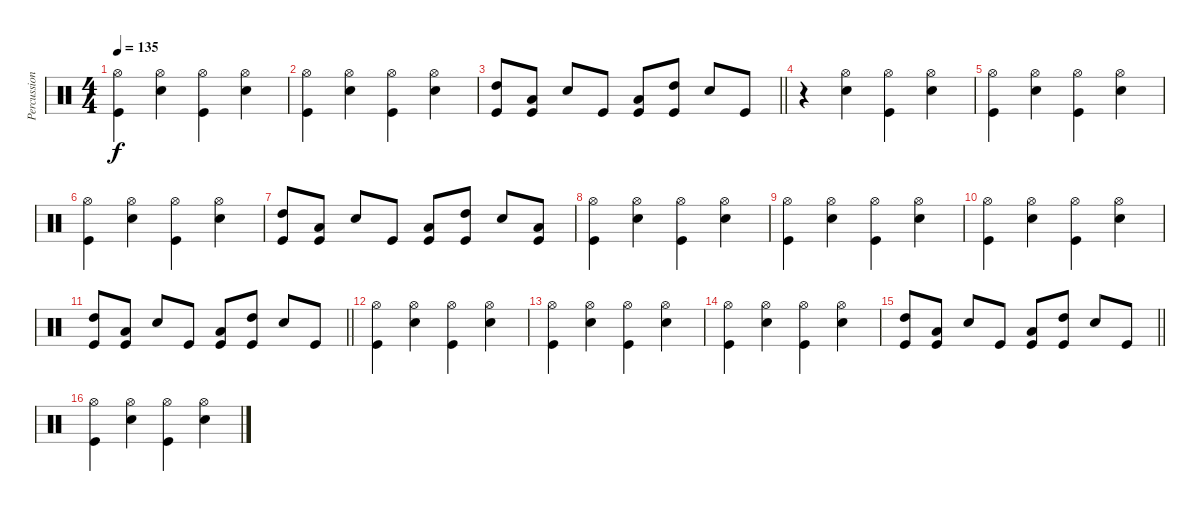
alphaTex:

\track ("Percussion" "Percussion") {instrument percussion}
\staff {score}
\articulation defaults
\ts (4 4)
\tempo 135
\clef neutral
\ks c
("Hi-Hat (open)" "Kick (hit)").4{dy f} ("Hi-Hat (open)" "Electric Snare (hit)").4 ("Hi-Hat (open)" "Kick (hit)").4 ("Hi-Hat (open)" "Electric Snare (hit)").4 |
("Hi-Hat (open)" "Kick (hit)").4 ("Hi-Hat (open)" "Electric Snare (hit)").4 ("Hi-Hat (open)" "Kick (hit)").4 ("Hi-Hat (open)" "Electric Snare (hit)").4 |
\barLineRight lightlight
("High Tom (hit)" "Kick (hit)").8 ("Low Tom (hit)" "Kick (hit)").8 "Electric Snare (hit)".8 "Kick (hit)".8 ("Low Tom (hit)" "Kick (hit)").8 ("High Tom (hit)" "Kick (hit)").8 "Electric Snare (hit)".8 "Kick (hit)".8 |
r.4 ("Hi-Hat (open)" "Electric Snare (hit)").4 ("Hi-Hat (open)" "Kick (hit)").4 ("Hi-Hat (open)" "Electric Snare (hit)").4 |
("Hi-Hat (open)" "Kick (hit)").4 ("Hi-Hat (open)" "Electric Snare (hit)").4 ("Hi-Hat (open)" "Kick (hit)").4 ("Hi-Hat (open)" "Electric Snare (hit)").4 |
("Hi-Hat (open)" "Kick (hit)").4 ("Hi-Hat (open)" "Electric Snare (hit)").4 ("Hi-Hat (open)" "Kick (hit)").4 ("Hi-Hat (open)" "Electric Snare (hit)").4 |
("High Tom (hit)" "Kick (hit)").8 ("Low Tom (hit)" "Kick (hit)").8 "Electric Snare (hit)".8 "Kick (hit)".8 ("Low Tom (hit)" "Kick (hit)").8 ("High Tom (hit)" "Kick (hit)").8 "Electric Snare (hit)".8 ("Low Floor Tom (hit)" "Kick (hit)").8 |
("Hi-Hat (open)" "Kick (hit)").4 ("Hi-Hat (open)" "Electric Snare (hit)").4 ("Hi-Hat (open)" "Kick (hit)").4 ("Hi-Hat (open)" "Electric Snare (hit)").4 |
("Hi-Hat (open)" "Kick (hit)").4 ("Hi-Hat (open)" "Electric Snare (hit)").4 ("Hi-Hat (open)" "Kick (hit)").4 ("Hi-Hat (open)" "Electric Snare (hit)").4 |
("Hi-Hat (open)" "Kick (hit)").4 ("Hi-Hat (open)" "Electric Snare (hit)").4 ("Hi-Hat (open)" "Kick (hit)").4 ("Hi-Hat (open)" "Electric Snare (hit)").4 |
\barLineRight lightlight
("High Tom (hit)" "Kick (hit)").8 ("Low Tom (hit)" "Kick (hit)").8 "Electric Snare (hit)".8 "Kick (hit)".8 ("Low Tom (hit)" "Kick (hit)").8 ("High Tom (hit)" "Kick (hit)").8 "Electric Snare (hit)".8 "Kick (hit)".8 |
("Hi-Hat (open)" "Kick (hit)").4 ("Hi-Hat (open)" "Electric Snare (hit)").4 ("Hi-Hat (open)" "Kick (hit)").4 ("Hi-Hat (open)" "Electric Snare (hit)").4 |
("Hi-Hat (open)" "Kick (hit)").4 ("Hi-Hat (open)" "Electric Snare (hit)").4 ("Hi-Hat (open)" "Kick (hit)").4 ("Hi-Hat (open)" "Electric Snare (hit)").4 |
("Hi-Hat (open)" "Kick (hit)").4 ("Hi-Hat (open)" "Electric Snare (hit)").4 ("Hi-Hat (open)" "Kick (hit)").4 ("Hi-Hat (open)" "Electric Snare (hit)").4 |
\barLineRight lightlight
("High Tom (hit)" "Kick (hit)").8 ("Low Tom (hit)" "Kick (hit)").8 "Electric Snare (hit)".8 "Kick (hit)".8 ("Low Tom (hit)" "Kick (hit)").8 ("High Tom (hit)" "Kick (hit)").8 "Electric Snare (hit)".8 "Kick (hit)".8 |
("Hi-Hat (open)" "Kick (hit)").4 ("Hi-Hat (open)" "Electric Snare (hit)").4 ("Hi-Hat (open)" "Kick (hit)").4 ("Hi-Hat (open)" "Electric Snare (hit)").4
